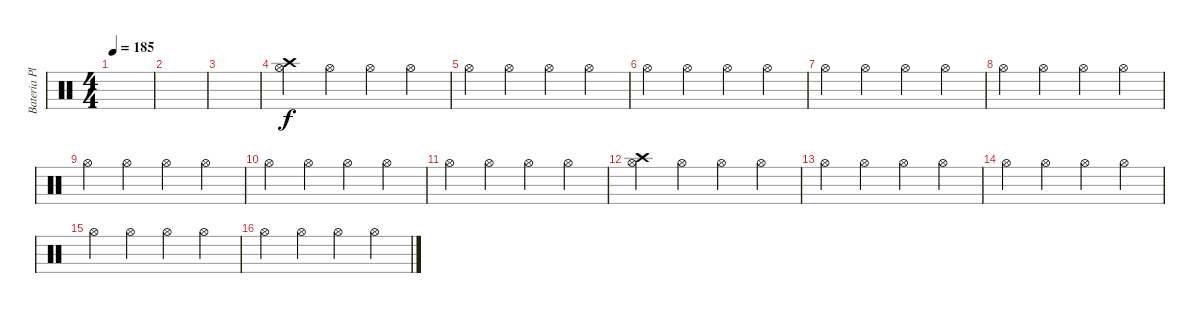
\track ("Bateria Platos" "Bateria Pl") {instrument percussion}
\staff {score}
\articulation defaults
\ts (4 4)
\tempo 185
\clef neutral
\ks c
|
|
|
("Crash high (hit)" "Hi-Hat (open)").4 "Hi-Hat (open)".4 "Hi-Hat (open)".4 "Hi-Hat (open)".4 |
"Hi-Hat (open)".4 "Hi-Hat (open)".4 "Hi-Hat (open)".4 "Hi-Hat (open)".4 |
"Hi-Hat (open)".4 "Hi-Hat (open)".4 "Hi-Hat (open)".4 "Hi-Hat (open)".4 |
"Hi-Hat (open)".4 "Hi-Hat (open)".4 "Hi-Hat (open)".4 "Hi-Hat (open)".4 |
"Hi-Hat (open)".4 "Hi-Hat (open)".4 "Hi-Hat (open)".4 "Hi-Hat (open)".4 |
"Hi-Hat (open)".4 "Hi-Hat (open)".4 "Hi-Hat (open)".4 "Hi-Hat (open)".4 |
"Hi-Hat (open)".4 "Hi-Hat (open)".4 "Hi-Hat (open)".4 "Hi-Hat (open)".4 |
"Hi-Hat (open)".4 "Hi-Hat (open)".4 "Hi-Hat (open)".4 "Hi-Hat (open)".4 |
("Crash high (hit)" "Hi-Hat (open)").4 "Hi-Hat (open)".4 "Hi-Hat (open)".4 "Hi-Hat (open)".4 |
"Hi-Hat (open)".4 "Hi-Hat (open)".4 "Hi-Hat (open)".4 "Hi-Hat (open)".4 |
"Hi-Hat (open)".4 "Hi-Hat (open)".4 "Hi-Hat (open)".4 "Hi-Hat (open)".4 |
"Hi-Hat (open)".4 "Hi-Hat (open)".4 "Hi-Hat (open)".4 "Hi-Hat (open)".4 |
"Hi-Hat (open)".4 "Hi-Hat (open)".4 "Hi-Hat (open)".4 "Hi-Hat (open)".4
